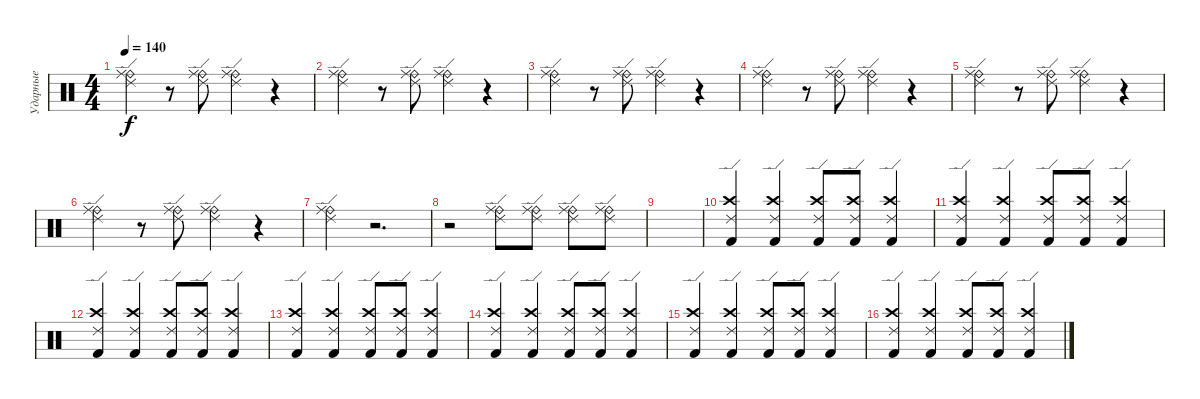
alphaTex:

\track ("Ударные" "Ударные") {instrument percussion}
\staff {score}
\articulation defaults
\ts (4 4)
\tempo 140
\clef neutral
\ks c
("Ride (bell)" "Ride (edge) 2" "Ride (middle)").4{dy f} r.8 ("Ride (bell)" "Ride (edge) 2" "Ride (middle)").8 ("Ride (bell)" "Ride (edge) 2" "Ride (middle)").4 r.4 |
("Ride (bell)" "Ride (edge) 2" "Ride (middle)").4 r.8 ("Ride (bell)" "Ride (edge) 2" "Ride (middle)").8 ("Ride (bell)" "Ride (edge) 2" "Ride (middle)").4 r.4 |
("Ride (bell)" "Ride (edge) 2" "Ride (middle)").4 r.8 ("Ride (bell)" "Ride (edge) 2" "Ride (middle)").8 ("Ride (bell)" "Ride (edge) 2" "Ride (middle)").4 r.4 |
("Ride (bell)" "Ride (edge) 2" "Ride (middle)").4 r.8 ("Ride (bell)" "Ride (edge) 2" "Ride (middle)").8 ("Ride (bell)" "Ride (edge) 2" "Ride (middle)").4 r.4 |
("Ride (bell)" "Ride (edge) 2" "Ride (middle)").4 r.8 ("Ride (bell)" "Ride (edge) 2" "Ride (middle)").8 ("Ride (bell)" "Ride (edge) 2" "Ride (middle)").4 r.4 |
("Ride (bell)" "Ride (edge) 2" "Ride (middle)").4 r.8 ("Ride (bell)" "Ride (edge) 2" "Ride (middle)").8 ("Ride (bell)" "Ride (edge) 2" "Ride (middle)").4 r.4 |
("Ride (bell)" "Ride (edge) 2" "Ride (middle)").4 r.2{d} |
r.2 ("Ride (bell)" "Ride (edge) 2" "Ride (middle)").8 ("Ride (bell)" "Ride (edge) 2" "Ride (middle)").8 ("Ride (bell)" "Ride (edge) 2" "Ride (middle)").8 ("Ride (bell)" "Ride (edge) 2" "Ride (middle)").8 |
|
("Crash high (hit)" "Ride (edge) 2" "Kick (hit) 2").4 ("Crash high (hit)" "Ride (edge) 2" "Kick (hit) 2").4 ("Crash high (hit)" "Ride (edge) 2" "Kick (hit) 2").8 ("Crash high (hit)" "Ride (edge) 2" "Kick (hit) 2").8 ("Crash high (hit)" "Ride (edge) 2" "Kick (hit) 2").4 |
("Crash high (hit)" "Ride (edge) 2" "Kick (hit) 2").4 ("Crash high (hit)" "Ride (edge) 2" "Kick (hit) 2").4 ("Crash high (hit)" "Ride (edge) 2" "Kick (hit) 2").8 ("Crash high (hit)" "Ride (edge) 2" "Kick (hit) 2").8 ("Crash high (hit)" "Ride (edge) 2" "Kick (hit) 2").4 |
("Crash high (hit)" "Ride (edge) 2" "Kick (hit) 2").4 ("Crash high (hit)" "Ride (edge) 2" "Kick (hit) 2").4 ("Crash high (hit)" "Ride (edge) 2" "Kick (hit) 2").8 ("Crash high (hit)" "Ride (edge) 2" "Kick (hit) 2").8 ("Crash high (hit)" "Ride (edge) 2" "Kick (hit) 2").4 |
("Crash high (hit)" "Ride (edge) 2" "Kick (hit) 2").4 ("Crash high (hit)" "Ride (edge) 2" "Kick (hit) 2").4 ("Crash high (hit)" "Ride (edge) 2" "Kick (hit) 2").8 ("Crash high (hit)" "Ride (edge) 2" "Kick (hit) 2").8 ("Crash high (hit)" "Ride (edge) 2" "Kick (hit) 2").4 |
("Crash high (hit)" "Ride (edge) 2" "Kick (hit) 2").4 ("Crash high (hit)" "Ride (edge) 2" "Kick (hit) 2").4 ("Crash high (hit)" "Ride (edge) 2" "Kick (hit) 2").8 ("Crash high (hit)" "Ride (edge) 2" "Kick (hit) 2").8 ("Crash high (hit)" "Ride (edge) 2" "Kick (hit) 2").4 |
("Crash high (hit)" "Ride (edge) 2" "Kick (hit) 2").4 ("Crash high (hit)" "Ride (edge) 2" "Kick (hit) 2").4 ("Crash high (hit)" "Ride (edge) 2" "Kick (hit) 2").8 ("Crash high (hit)" "Ride (edge) 2" "Kick (hit) 2").8 ("Crash high (hit)" "Ride (edge) 2" "Kick (hit) 2").4 |
("Crash high (hit)" "Ride (edge) 2" "Kick (hit) 2").4 ("Crash high (hit)" "Ride (edge) 2" "Kick (hit) 2").4 ("Crash high (hit)" "Ride (edge) 2" "Kick (hit) 2").8 ("Crash high (hit)" "Ride (edge) 2" "Kick (hit) 2").8 ("Crash high (hit)" "Ride (edge) 2" "Kick (hit) 2").4
